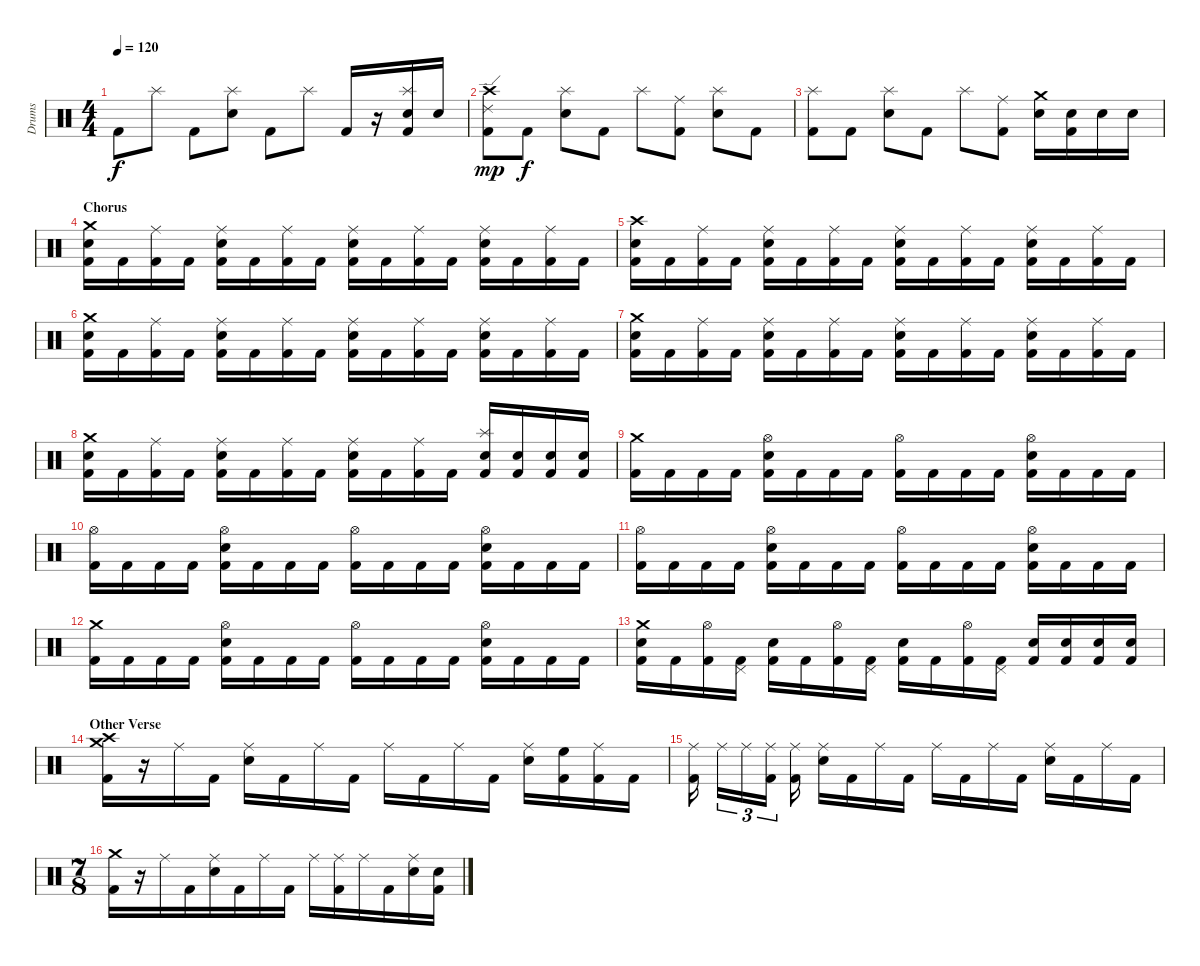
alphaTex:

\track ("Drums" "Drums") {instrument percussion}
\staff {score}
\articulation defaults
\ts (4 4)
\tempo 120
\clef neutral
\ks c "Kick (hit) 2".8{dy f} "Splash (hit)".8 "Kick (hit) 2".8
("Splash (hit)" "Electric Snare (hit)").8 "Kick (hit) 2".8 "Splash (hit)".8 "Kick (hit) 2".16 r.16 ("Splash (hit)" "Electric Snare (hit)" "Kick (hit) 2").16 "Electric Snare (hit)".16 |
("Ride (edge) 2" "Crash high (hit)" "Kick (hit) 2").8{dy mp} "Kick (hit) 2".8{dy f} ("Splash (hit)" "Electric Snare (hit)").8 "Kick (hit) 2".8 "Splash (hit)".8 ("Ride (middle)" "Kick (hit) 2").8 ("Splash (hit)" "Electric Snare (hit)").8 "Kick (hit) 2".8 |
("Splash (hit)" "Kick (hit) 2").8 "Kick (hit) 2".8 ("Splash (hit)" "Electric Snare (hit)").8 "Kick (hit) 2".8 "Splash (hit)".8 ("Ride (middle)" "Kick (hit) 2").8 ("Crash medium (hit)" "Electric Snare (hit)").16 ("Electric Snare (hit)" "Kick (hit) 2").16 "Electric Snare (hit)".16 "Electric Snare (hit)".16 |
\section ("" "Chorus")
("Crash medium (hit)" "Electric Snare (hit)" "Kick (hit) 2").16 "Kick (hit) 2".16 ("Ride (middle)" "Kick (hit) 2").16 "Kick (hit) 2".16 ("Ride (middle)" "Electric Snare (hit)" "Kick (hit) 2").16 "Kick (hit) 2".16 ("Ride (middle)" "Kick (hit) 2").16 "Kick (hit) 2".16 ("Ride (middle)" "Electric Snare (hit)" "Kick (hit) 2").16 "Kick (hit) 2".16 ("Ride (middle)" "Kick (hit) 2").16 "Kick (hit) 2".16 ("Ride (middle)" "Electric Snare (hit)" "Kick (hit) 2").16 "Kick (hit) 2".16 ("Ride (middle)" "Kick (hit) 2").16 "Kick (hit) 2".16 |
("Crash high (hit)" "Electric Snare (hit)" "Kick (hit) 2").16 "Kick (hit) 2".16 ("Ride (middle)" "Kick (hit) 2").16 "Kick (hit) 2".16 ("Ride (middle)" "Electric Snare (hit)" "Kick (hit) 2").16 "Kick (hit) 2".16 ("Ride (middle)" "Kick (hit) 2").16 "Kick (hit) 2".16 ("Ride (middle)" "Electric Snare (hit)" "Kick (hit) 2").16 "Kick (hit) 2".16 ("Ride (middle)" "Kick (hit) 2").16 "Kick (hit) 2".16 ("Ride (middle)" "Electric Snare (hit)" "Kick (hit) 2").16 "Kick (hit) 2".16 ("Ride (middle)" "Kick (hit) 2").16 "Kick (hit) 2".16 |
("Crash medium (hit)" "Electric Snare (hit)" "Kick (hit) 2").16 "Kick (hit) 2".16 ("Ride (middle)" "Kick (hit) 2").16 "Kick (hit) 2".16 ("Ride (middle)" "Electric Snare (hit)" "Kick (hit) 2").16 "Kick (hit) 2".16 ("Ride (middle)" "Kick (hit) 2").16 "Kick (hit) 2".16 ("Ride (middle)" "Electric Snare (hit)" "Kick (hit) 2").16 "Kick (hit) 2".16 ("Ride (middle)" "Kick (hit) 2").16 "Kick (hit) 2".16 ("Ride (middle)" "Electric Snare (hit)" "Kick (hit) 2").16 "Kick (hit) 2".16 ("Ride (middle)" "Kick (hit) 2").16 "Kick (hit) 2".16 |
("Crash medium (hit)" "Electric Snare (hit)" "Kick (hit) 2").16 "Kick (hit) 2".16 ("Ride (middle)" "Kick (hit) 2").16 "Kick (hit) 2".16 ("Ride (middle)" "Electric Snare (hit)" "Kick (hit) 2").16 "Kick (hit) 2".16 ("Ride (middle)" "Kick (hit) 2").16 "Kick (hit) 2".16 ("Ride (middle)" "Electric Snare (hit)" "Kick (hit) 2").16 "Kick (hit) 2".16 ("Ride (middle)" "Kick (hit) 2").16 "Kick (hit) 2".16 ("Ride (middle)" "Electric Snare (hit)" "Kick (hit) 2").16 "Kick (hit) 2".16 ("Ride (middle)" "Kick (hit) 2").16 "Kick (hit) 2".16 |
("Crash medium (hit)" "Electric Snare (hit)" "Kick (hit) 2").16 "Kick (hit) 2".16 ("Ride (middle)" "Kick (hit) 2").16 "Kick (hit) 2".16 ("Ride (middle)" "Electric Snare (hit)" "Kick (hit) 2").16 "Kick (hit) 2".16 ("Ride (middle)" "Kick (hit) 2").16 "Kick (hit) 2".16 ("Ride (middle)" "Electric Snare (hit)" "Kick (hit) 2").16 "Kick (hit) 2".16 ("Ride (middle)" "Kick (hit) 2").16 "Kick (hit) 2".16 ("Splash (hit)" "Electric Snare (hit)" "Kick (hit) 2").16 ("Electric Snare (hit)" "Kick (hit) 2").16 ("Electric Snare (hit)" "Kick (hit) 2").16 ("Electric Snare (hit)" "Kick (hit) 2").16 |
("Crash medium (hit)" "Kick (hit) 2").16 "Kick (hit) 2".16 "Kick (hit) 2".16 "Kick (hit) 2".16 ("Hi-Hat (open)" "Electric Snare (hit)" "Kick (hit) 2").16 "Kick (hit) 2".16 "Kick (hit) 2".16 "Kick (hit) 2".16 ("Hi-Hat (open)" "Kick (hit) 2").16 "Kick (hit) 2".16 "Kick (hit) 2".16 "Kick (hit) 2".16 ("Hi-Hat (open)" "Electric Snare (hit)" "Kick (hit) 2").16 "Kick (hit) 2".16 "Kick (hit) 2".16 "Kick (hit) 2".16 |
("Hi-Hat (open)" "Kick (hit) 2").16 "Kick (hit) 2".16 "Kick (hit) 2".16 "Kick (hit) 2".16 ("Hi-Hat (open)" "Electric Snare (hit)" "Kick (hit) 2").16 "Kick (hit) 2".16 "Kick (hit) 2".16 "Kick (hit) 2".16 ("Hi-Hat (open)" "Kick (hit) 2").16 "Kick (hit) 2".16 "Kick (hit) 2".16 "Kick (hit) 2".16 ("Hi-Hat (open)" "Electric Snare (hit)" "Kick (hit) 2").16 "Kick (hit) 2".16 "Kick (hit) 2".16 "Kick (hit) 2".16 |
("Hi-Hat (open)" "Kick (hit) 2").16 "Kick (hit) 2".16 "Kick (hit) 2".16 "Kick (hit) 2".16 ("Hi-Hat (open)" "Electric Snare (hit)" "Kick (hit) 2").16 "Kick (hit) 2".16 "Kick (hit) 2".16 "Kick (hit) 2".16 ("Hi-Hat (open)" "Kick (hit) 2").16 "Kick (hit) 2".16 "Kick (hit) 2".16 "Kick (hit) 2".16 ("Hi-Hat (open)" "Electric Snare (hit)" "Kick (hit) 2").16 "Kick (hit) 2".16 "Kick (hit) 2".16 "Kick (hit) 2".16 |
("Crash medium (hit)" "Kick (hit) 2").16 "Kick (hit) 2".16 "Kick (hit) 2".16 "Kick (hit) 2".16 ("Hi-Hat (open)" "Electric Snare (hit)" "Kick (hit) 2").16 "Kick (hit) 2".16 "Kick (hit) 2".16 "Kick (hit) 2".16 ("Hi-Hat (open)" "Kick (hit) 2").16 "Kick (hit) 2".16 "Kick (hit) 2".16 "Kick (hit) 2".16 ("Hi-Hat (open)" "Electric Snare (hit)" "Kick (hit) 2").16 "Kick (hit) 2".16 "Kick (hit) 2".16 "Kick (hit) 2".16 |
("Crash medium (hit)" "Electric Snare (hit)" "Kick (hit) 2").16 "Kick (hit) 2".16 ("Hi-Hat (open)" "Kick (hit) 2").16 ("Pedal Hi-Hat (hit)" "Kick (hit) 2").16 ("Electric Snare (hit)" "Kick (hit) 2").16 "Kick (hit) 2".16 ("Hi-Hat (open)" "Kick (hit) 2").16 ("Pedal Hi-Hat (hit)" "Kick (hit) 2").16 ("Electric Snare (hit)" "Kick (hit) 2").16 "Kick (hit) 2".16 ("Hi-Hat (open)" "Kick (hit) 2").16 ("Pedal Hi-Hat (hit)" "Kick (hit) 2").16 ("Electric Snare (hit)" "Kick (hit) 2").16 ("Electric Snare (hit)" "Kick (hit) 2").16 ("Electric Snare (hit)" "Kick (hit) 2").16 ("Electric Snare (hit)" "Kick (hit) 2").16 |
\section ("" "Other Verse")
("Crash medium (hit)" "Crash high (hit)" "Kick (hit) 2").16 r.16 "Ride (middle)".16 "Kick (hit) 2".16 ("Ride (middle)" "Electric Snare (hit)").16 "Kick (hit) 2".16 "Ride (middle)".16 "Kick (hit) 2".16 "Ride (middle)".16 "Kick (hit) 2".16 "Ride (middle)".16 "Kick (hit) 2".16 ("Ride (middle)" "Electric Snare (hit)").16 ("High Floor Tom (hit)" "Kick (hit) 2").16 ("Ride (middle)" "Kick (hit) 2").16 "Kick (hit) 2".16 |
("Ride (middle)" "Kick (hit) 2").16 "Ride (middle)".16{tu (3 2)} "Ride (middle)".16{tu (3 2)} ("Ride (middle)" "Kick (hit) 2").16{tu (3 2)} ("Ride (middle)" "Kick (hit) 2").16 ("Ride (middle)" "Electric Snare (hit)").16 "Kick (hit) 2".16 "Ride (middle)".16 "Kick (hit) 2".16 "Ride (middle)".16 "Kick (hit) 2".16 "Ride (middle)".16 "Kick (hit) 2".16 ("Ride (middle)" "Electric Snare (hit)").16 "Kick (hit) 2".16 "Ride (middle)".16 "Kick (hit) 2".16 |
\ts (7 8)
("Crash medium (hit)" "Kick (hit) 2").16 r.16 "Ride (middle)".16 "Kick (hit) 2".16 ("Ride (middle)" "Electric Snare (hit)").16 "Kick (hit) 2".16 "Ride (middle)".16 "Kick (hit) 2".16 "Ride (middle)".16 ("Ride (middle)" "Kick (hit) 2").16 "Ride (middle)".16 "Kick (hit) 2".16 ("Ride (middle)" "Electric Snare (hit)").16 ("Electric Snare (hit)" "Kick (hit) 2").16
